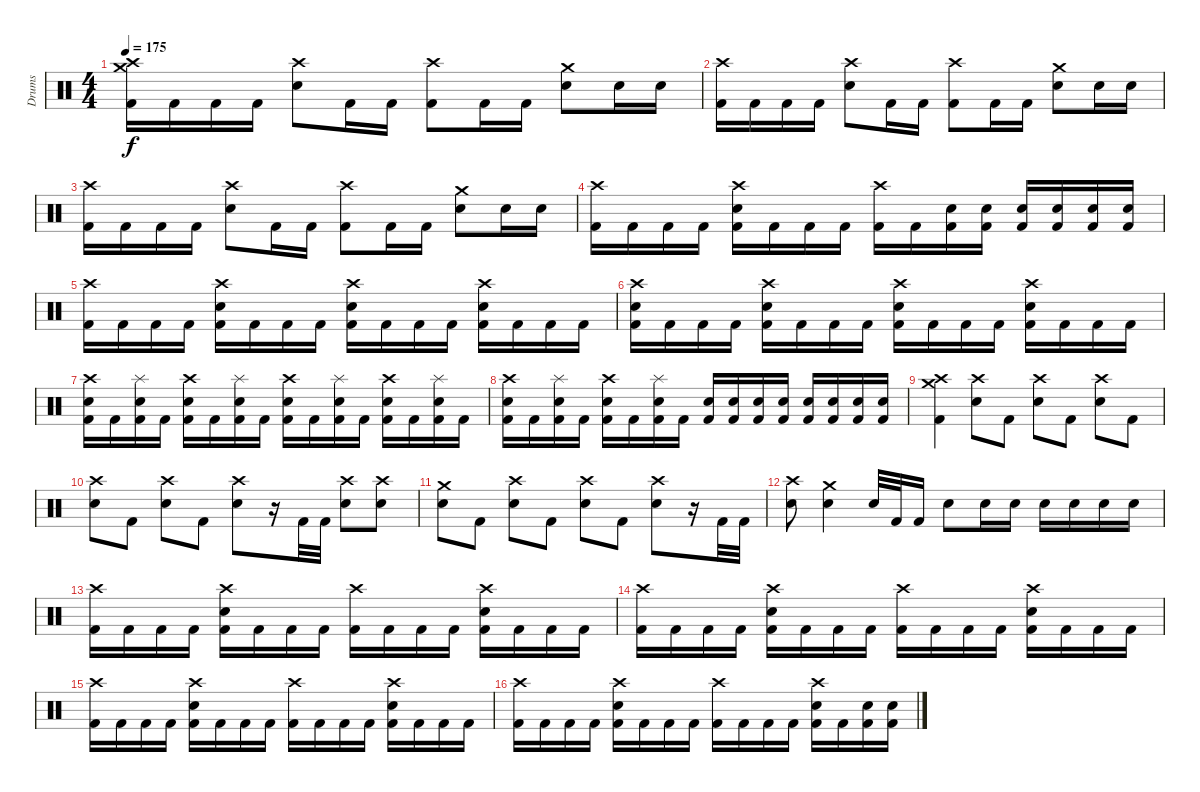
\track ("Drums" "Drums") {instrument percussion}
\staff {score}
\articulation defaults
\ts (4 4)
\tempo 175
\clef neutral
\ks c
("Crash medium (hit)" "Crash high (hit)" "Kick (hit) 2").16{dy f} "Kick (hit) 2".16 "Kick (hit) 2".16 "Kick (hit) 2".16 ("Crash high (hit)" "Snare (hit) 2").8 "Kick (hit) 2".16 "Kick (hit) 2".16 ("Crash high (hit)" "Kick (hit) 2").8 "Kick (hit) 2".16 "Kick (hit) 2".16 ("Crash medium (hit)" "Snare (hit) 2").8 "Snare (hit) 2".16 "Snare (hit) 2".16 |
("Crash high (hit)" "Kick (hit) 2").16 "Kick (hit) 2".16 "Kick (hit) 2".16 "Kick (hit) 2".16 ("Crash high (hit)" "Snare (hit) 2").8 "Kick (hit) 2".16 "Kick (hit) 2".16 ("Crash high (hit)" "Kick (hit) 2").8 "Kick (hit) 2".16 "Kick (hit) 2".16 ("Crash medium (hit)" "Snare (hit) 2").8 "Snare (hit) 2".16 "Snare (hit) 2".16 |
("Crash high (hit)" "Kick (hit) 2").16 "Kick (hit) 2".16 "Kick (hit) 2".16 "Kick (hit) 2".16 ("Crash high (hit)" "Snare (hit) 2").8 "Kick (hit) 2".16 "Kick (hit) 2".16 ("Crash high (hit)" "Kick (hit) 2").8 "Kick (hit) 2".16 "Kick (hit) 2".16 ("Crash medium (hit)" "Snare (hit) 2").8 "Snare (hit) 2".16 "Snare (hit) 2".16 |
("Crash high (hit)" "Kick (hit) 2").16 "Kick (hit) 2".16 "Kick (hit) 2".16 "Kick (hit) 2".16 ("Crash high (hit)" "Snare (hit) 2" "Kick (hit) 2").16 "Kick (hit) 2".16 "Kick (hit) 2".16 "Kick (hit) 2".16 ("Crash high (hit)" "Kick (hit) 2").16 "Kick (hit) 2".16 ("Snare (hit) 2" "Kick (hit) 2").16 ("Snare (hit) 2" "Kick (hit) 2").16 ("Snare (hit) 2" "Kick (hit) 2").16 ("Snare (hit) 2" "Kick (hit) 2").16 ("Snare (hit) 2" "Kick (hit) 2").16 ("Snare (hit) 2" "Kick (hit) 2").16 |
("Crash high (hit)" "Kick (hit) 2").16 "Kick (hit) 2".16 "Kick (hit) 2".16 "Kick (hit) 2".16 ("Crash high (hit)" "Snare (hit) 2" "Kick (hit) 2").16 "Kick (hit) 2".16 "Kick (hit) 2".16 "Kick (hit) 2".16 ("Crash high (hit)" "Snare (hit) 2" "Kick (hit) 2").16 "Kick (hit) 2".16 "Kick (hit) 2".16 "Kick (hit) 2".16 ("Crash high (hit)" "Snare (hit) 2" "Kick (hit) 2").16 "Kick (hit) 2".16 "Kick (hit) 2".16 "Kick (hit) 2".16 |
("Crash high (hit)" "Snare (hit) 2" "Kick (hit) 2").16 "Kick (hit) 2".16 "Kick (hit) 2".16 "Kick (hit) 2".16 ("Crash high (hit)" "Snare (hit) 2" "Kick (hit) 2").16 "Kick (hit) 2".16 "Kick (hit) 2".16 "Kick (hit) 2".16 ("Crash high (hit)" "Snare (hit) 2" "Kick (hit) 2").16 "Kick (hit) 2".16 "Kick (hit) 2".16 "Kick (hit) 2".16 ("Crash high (hit)" "Snare (hit) 2" "Kick (hit) 2").16 "Kick (hit) 2".16 "Kick (hit) 2".16 "Kick (hit) 2".16 |
("Crash high (hit)" "Snare (hit) 2" "Kick (hit) 2").16 "Kick (hit) 2".16 ("Splash (hit)" "Snare (hit) 2" "Kick (hit) 2").16 "Kick (hit) 2".16 ("Crash high (hit)" "Snare (hit) 2" "Kick (hit) 2").16 "Kick (hit) 2".16 ("Splash (hit)" "Snare (hit) 2" "Kick (hit) 2").16 "Kick (hit) 2".16 ("Crash high (hit)" "Snare (hit) 2" "Kick (hit) 2").16 "Kick (hit) 2".16 ("Splash (hit)" "Snare (hit) 2" "Kick (hit) 2").16 "Kick (hit) 2".16 ("Crash high (hit)" "Snare (hit) 2" "Kick (hit) 2").16 "Kick (hit) 2".16 ("Splash (hit)" "Snare (hit) 2" "Kick (hit) 2").16 "Kick (hit) 2".16 |
("Crash high (hit)" "Snare (hit) 2" "Kick (hit) 2").16 "Kick (hit) 2".16 ("Splash (hit)" "Snare (hit) 2" "Kick (hit) 2").16 "Kick (hit) 2".16 ("Crash high (hit)" "Snare (hit) 2" "Kick (hit) 2").16 "Kick (hit) 2".16 ("Splash (hit)" "Snare (hit) 2" "Kick (hit) 2").16 "Kick (hit) 2".16 ("Snare (hit) 2" "Kick (hit) 2").16 ("Snare (hit) 2" "Kick (hit) 2").16 ("Snare (hit) 2" "Kick (hit) 2").16 ("Snare (hit) 2" "Kick (hit) 2").16 ("Snare (hit) 2" "Kick (hit) 2").16 ("Snare (hit) 2" "Kick (hit) 2").16 ("Snare (hit) 2" "Kick (hit) 2").16 ("Snare (hit) 2" "Kick (hit) 2").16 |
("Crash medium (hit)" "Crash high (hit)" "Kick (hit) 2").4 ("Crash high (hit)" "Snare (hit) 2").8 "Kick (hit) 2".8 ("Crash high (hit)" "Snare (hit) 2").8 "Kick (hit) 2".8 ("Crash high (hit)" "Snare (hit) 2").8 "Kick (hit) 2".8 |
("Crash high (hit)" "Snare (hit) 2").8 "Kick (hit) 2".8 ("Crash high (hit)" "Snare (hit) 2").8 "Kick (hit) 2".8 ("Crash high (hit)" "Snare (hit) 2").8 r.16 "Kick (hit) 2".32 "Kick (hit) 2".32 ("Crash high (hit)" "Snare (hit) 2").8 ("Crash high (hit)" "Snare (hit) 2").8 |
("Crash medium (hit)" "Snare (hit) 2").8 "Kick (hit) 2".8 ("Crash high (hit)" "Snare (hit) 2").8 "Kick (hit) 2".8 ("Crash high (hit)" "Snare (hit) 2").8 "Kick (hit) 2".8 ("Crash high (hit)" "Snare (hit) 2").8 r.16 "Kick (hit) 2".32 "Kick (hit) 2".32 |
("Crash high (hit)" "Snare (hit) 2").8 ("Crash medium (hit)" "Snare (hit) 2").4 "Snare (hit) 2".32 "Kick (hit) 2".32 "Kick (hit) 2".16 "Snare (hit) 2".8 "Snare (hit) 2".16 "Snare (hit) 2".16 "Snare (hit) 2".16 "Snare (hit) 2".16 "Snare (hit) 2".16 "Snare (hit) 2".16 |
("Crash high (hit)" "Kick (hit) 2").16 "Kick (hit) 2".16 "Kick (hit) 2".16 "Kick (hit) 2".16 ("Crash high (hit)" "Snare (hit) 2" "Kick (hit) 2").16 "Kick (hit) 2".16 "Kick (hit) 2".16 "Kick (hit) 2".16 ("Crash high (hit)" "Kick (hit) 2").16 "Kick (hit) 2".16 "Kick (hit) 2".16 "Kick (hit) 2".16 ("Crash high (hit)" "Snare (hit) 2" "Kick (hit) 2").16 "Kick (hit) 2".16 "Kick (hit) 2".16 "Kick (hit) 2".16 |
("Crash high (hit)" "Kick (hit) 2").16 "Kick (hit) 2".16 "Kick (hit) 2".16 "Kick (hit) 2".16 ("Crash high (hit)" "Snare (hit) 2" "Kick (hit) 2").16 "Kick (hit) 2".16 "Kick (hit) 2".16 "Kick (hit) 2".16 ("Crash high (hit)" "Kick (hit) 2").16 "Kick (hit) 2".16 "Kick (hit) 2".16 "Kick (hit) 2".16 ("Crash high (hit)" "Snare (hit) 2" "Kick (hit) 2").16 "Kick (hit) 2".16 "Kick (hit) 2".16 "Kick (hit) 2".16 |
("Crash high (hit)" "Kick (hit) 2").16 "Kick (hit) 2".16 "Kick (hit) 2".16 "Kick (hit) 2".16 ("Crash high (hit)" "Snare (hit) 2" "Kick (hit) 2").16 "Kick (hit) 2".16 "Kick (hit) 2".16 "Kick (hit) 2".16 ("Crash high (hit)" "Kick (hit) 2").16 "Kick (hit) 2".16 "Kick (hit) 2".16 "Kick (hit) 2".16 ("Crash high (hit)" "Snare (hit) 2" "Kick (hit) 2").16 "Kick (hit) 2".16 "Kick (hit) 2".16 "Kick (hit) 2".16 |
("Crash high (hit)" "Kick (hit) 2").16 "Kick (hit) 2".16 "Kick (hit) 2".16 "Kick (hit) 2".16 ("Crash high (hit)" "Snare (hit) 2" "Kick (hit) 2").16 "Kick (hit) 2".16 "Kick (hit) 2".16 "Kick (hit) 2".16 ("Crash high (hit)" "Kick (hit) 2").16 "Kick (hit) 2".16 "Kick (hit) 2".16 "Kick (hit) 2".16 ("Crash high (hit)" "Snare (hit) 2" "Kick (hit) 2").16 "Kick (hit) 2".16 ("Snare (hit) 2" "Kick (hit) 2").16 ("Snare (hit) 2" "Kick (hit) 2").16
